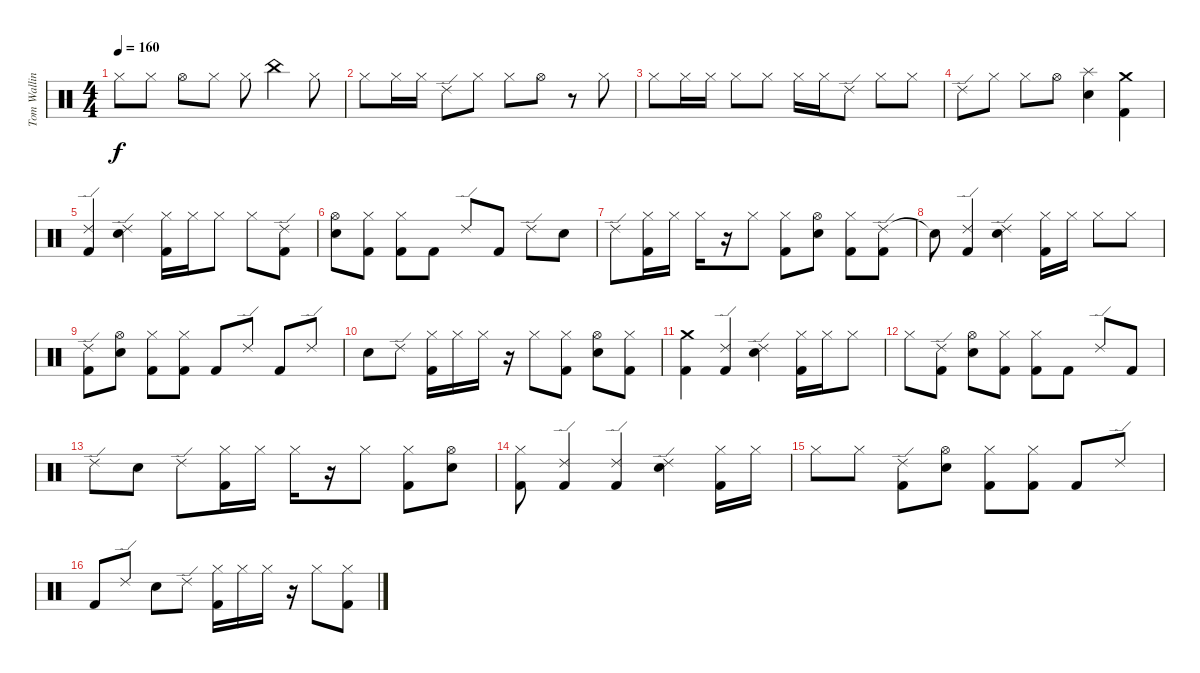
\track ("Tom Walling (Drums)" "Tom Wallin") {instrument percussion}
\staff {score}
\articulation defaults
\ts (4 4)
\tempo 160
\clef neutral
\ks c "Hi-Hat (closed)".8{dy f} "Hi-Hat (closed)".8 "Hi-Hat (open)".8 "Hi-Hat (closed)".8 "Hi-Hat (closed)".8 "China (hit)".4 "Hi-Hat (closed)".8
|
"Hi-Hat (closed)".8 "Hi-Hat (closed)".16 "Hi-Hat (closed)".16 "Ride (edge) 2".8 "Hi-Hat (closed)".8 "Hi-Hat (closed)".8 "Hi-Hat (open)".8 r.8 "Hi-Hat (closed)".8 |
"Hi-Hat (closed)".8 "Hi-Hat (closed)".16 "Hi-Hat (closed)".16 "Hi-Hat (closed)".8 "Hi-Hat (closed)".8 "Hi-Hat (closed)".16 "Hi-Hat (closed)".16 "Ride (edge) 2".8 "Hi-Hat (closed)".8 "Hi-Hat (closed)".8 |
"Ride (edge) 2".8 "Hi-Hat (closed)".8 "Hi-Hat (closed)".8 "Hi-Hat (open)".8 ("Splash (hit)" "Electric Snare (hit)").4 ("Crash medium (hit)" "Kick (hit) 2").4 |
("Ride (edge) 2" "Kick (hit) 2").4 ("Ride (edge) 2" "Electric Snare (hit)").4 ("Hi-Hat (closed)" "Kick (hit) 2").16 "Hi-Hat (closed)".16 "Hi-Hat (closed)".8 "Hi-Hat (closed)".8 ("Ride (edge) 2" "Kick (hit) 2").8 |
("Hi-Hat (open)" "Electric Snare (hit)").8 ("Hi-Hat (closed)" "Kick (hit) 2").8 ("Hi-Hat (closed)" "Kick (hit) 2").8 "Kick (hit) 2".8 "Ride (edge) 2".8 "Kick (hit) 2".8 "Ride (edge) 2".8 "Electric Snare (hit)".8 |
"Ride (edge) 2".8 ("Hi-Hat (closed)" "Kick (hit) 2").16 "Hi-Hat (closed)".16 "Hi-Hat (closed)".16 r.16 "Hi-Hat (closed)".8 ("Hi-Hat (closed)" "Kick (hit) 2").8 ("Hi-Hat (open)" "Electric Snare (hit)").8 ("Hi-Hat (closed)" "Kick (hit) 2").8 ("Ride (edge) 2" "Kick (hit) 2").8 |
"Snare (hit)"{t}.8 ("Ride (edge) 2" "Kick (hit) 2").4 ("Ride (edge) 2" "Electric Snare (hit)").4 ("Hi-Hat (closed)" "Kick (hit) 2").16 "Hi-Hat (closed)".16 "Hi-Hat (closed)".8 "Hi-Hat (closed)".8 |
("Ride (edge) 2" "Kick (hit) 2").8 ("Hi-Hat (open)" "Electric Snare (hit)").8 ("Hi-Hat (closed)" "Kick (hit) 2").8 ("Hi-Hat (closed)" "Kick (hit) 2").8 "Kick (hit) 2".8 "Ride (edge) 2".8 "Kick (hit) 2".8 "Ride (edge) 2".8 |
"Electric Snare (hit)".8 "Ride (edge) 2".8 ("Hi-Hat (closed)" "Kick (hit) 2").16 "Hi-Hat (closed)".16 "Hi-Hat (closed)".16 r.16 "Hi-Hat (closed)".8 ("Hi-Hat (closed)" "Kick (hit) 2").8 ("Hi-Hat (open)" "Electric Snare (hit)").8 ("Hi-Hat (closed)" "Kick (hit) 2").8 |
("Crash medium (hit)" "Kick (hit) 2").4 ("Ride (edge) 2" "Kick (hit) 2").4 ("Ride (edge) 2" "Electric Snare (hit)").4 ("Hi-Hat (closed)" "Kick (hit) 2").16 "Hi-Hat (closed)".16 "Hi-Hat (closed)".8 |
"Hi-Hat (closed)".8 ("Ride (edge) 2" "Kick (hit) 2").8 ("Hi-Hat (open)" "Electric Snare (hit)").8 ("Hi-Hat (closed)" "Kick (hit) 2").8 ("Hi-Hat (closed)" "Kick (hit) 2").8 "Kick (hit) 2".8 "Ride (edge) 2".8 "Kick (hit) 2".8 |
"Ride (edge) 2".8 "Electric Snare (hit)".8 "Ride (edge) 2".8 ("Hi-Hat (closed)" "Kick (hit) 2").16 "Hi-Hat (closed)".16 "Hi-Hat (closed)".16 r.16 "Hi-Hat (closed)".8 ("Hi-Hat (closed)" "Kick (hit) 2").8 ("Hi-Hat (open)" "Electric Snare (hit)").8 |
("Hi-Hat (closed)" "Kick (hit) 2").8 ("Ride (edge) 2" "Kick (hit) 2").4 ("Ride (edge) 2" "Kick (hit) 2").4 ("Ride (edge) 2" "Electric Snare (hit)").4 ("Hi-Hat (closed)" "Kick (hit) 2").16 "Hi-Hat (closed)".16 |
"Hi-Hat (closed)".8 "Hi-Hat (closed)".8 ("Ride (edge) 2" "Kick (hit) 2").8 ("Hi-Hat (open)" "Electric Snare (hit)").8 ("Hi-Hat (closed)" "Kick (hit) 2").8 ("Hi-Hat (closed)" "Kick (hit) 2").8 "Kick (hit) 2".8 "Ride (edge) 2".8 |
"Kick (hit) 2".8 "Ride (edge) 2".8 "Electric Snare (hit)".8 "Ride (edge) 2".8 ("Hi-Hat (closed)" "Kick (hit) 2").16 "Hi-Hat (closed)".16 "Hi-Hat (closed)".16 r.16 "Hi-Hat (closed)".8 ("Hi-Hat (closed)" "Kick (hit) 2").8
